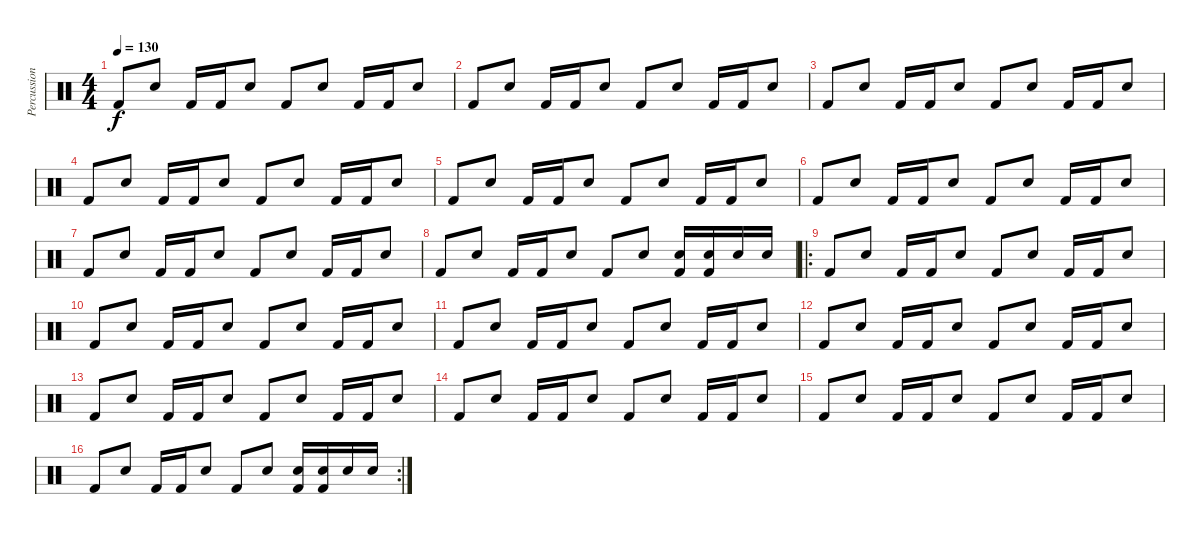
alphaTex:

\track ("Percussion" "Percussion") {instrument percussion}
\staff {score}
\articulation defaults
\ts (4 4)
\tempo 130
\clef neutral
\ks c "Kick (hit) 2".8{dy f} "Snare (hit) 2".8 "Kick (hit) 2".16 "Kick (hit) 2".16 "Snare (hit) 2".8 "Kick (hit) 2".8 "Snare (hit) 2".8 "Kick (hit) 2".16 "Kick (hit) 2".16 "Snare (hit) 2".8
|
"Kick (hit) 2".8 "Snare (hit) 2".8 "Kick (hit) 2".16 "Kick (hit) 2".16 "Snare (hit) 2".8 "Kick (hit) 2".8 "Snare (hit) 2".8 "Kick (hit) 2".16 "Kick (hit) 2".16 "Snare (hit) 2".8 |
"Kick (hit) 2".8 "Snare (hit) 2".8 "Kick (hit) 2".16 "Kick (hit) 2".16 "Snare (hit) 2".8 "Kick (hit) 2".8 "Snare (hit) 2".8 "Kick (hit) 2".16 "Kick (hit) 2".16 "Snare (hit) 2".8 |
"Kick (hit) 2".8 "Snare (hit) 2".8 "Kick (hit) 2".16 "Kick (hit) 2".16 "Snare (hit) 2".8 "Kick (hit) 2".8 "Snare (hit) 2".8 "Kick (hit) 2".16 "Kick (hit) 2".16 "Snare (hit) 2".8 |
"Kick (hit) 2".8 "Snare (hit) 2".8 "Kick (hit) 2".16 "Kick (hit) 2".16 "Snare (hit) 2".8 "Kick (hit) 2".8 "Snare (hit) 2".8 "Kick (hit) 2".16 "Kick (hit) 2".16 "Snare (hit) 2".8 |
"Kick (hit) 2".8 "Snare (hit) 2".8 "Kick (hit) 2".16 "Kick (hit) 2".16 "Snare (hit) 2".8 "Kick (hit) 2".8 "Snare (hit) 2".8 "Kick (hit) 2".16 "Kick (hit) 2".16 "Snare (hit) 2".8 |
"Kick (hit) 2".8 "Snare (hit) 2".8 "Kick (hit) 2".16 "Kick (hit) 2".16 "Snare (hit) 2".8 "Kick (hit) 2".8 "Snare (hit) 2".8 "Kick (hit) 2".16 "Kick (hit) 2".16 "Snare (hit) 2".8 |
"Kick (hit) 2".8 "Snare (hit) 2".8 "Kick (hit) 2".16 "Kick (hit) 2".16 "Snare (hit) 2".8 "Kick (hit) 2".8 "Snare (hit) 2".8 ("Kick (hit) 2" "Snare (hit) 2").16 ("Kick (hit) 2" "Snare (hit) 2").16 "Snare (hit) 2".16 "Snare (hit) 2".16 |
\ro "Kick (hit) 2".8 "Snare (hit) 2".8 "Kick (hit) 2".16 "Kick (hit) 2".16 "Snare (hit) 2".8 "Kick (hit) 2".8 "Snare (hit) 2".8 "Kick (hit) 2".16 "Kick (hit) 2".16 "Snare (hit) 2".8
|
"Kick (hit) 2".8 "Snare (hit) 2".8 "Kick (hit) 2".16 "Kick (hit) 2".16 "Snare (hit) 2".8 "Kick (hit) 2".8 "Snare (hit) 2".8 "Kick (hit) 2".16 "Kick (hit) 2".16 "Snare (hit) 2".8 |
"Kick (hit) 2".8 "Snare (hit) 2".8 "Kick (hit) 2".16 "Kick (hit) 2".16 "Snare (hit) 2".8 "Kick (hit) 2".8 "Snare (hit) 2".8 "Kick (hit) 2".16 "Kick (hit) 2".16 "Snare (hit) 2".8 |
"Kick (hit) 2".8 "Snare (hit) 2".8 "Kick (hit) 2".16 "Kick (hit) 2".16 "Snare (hit) 2".8 "Kick (hit) 2".8 "Snare (hit) 2".8 "Kick (hit) 2".16 "Kick (hit) 2".16 "Snare (hit) 2".8 |
"Kick (hit) 2".8 "Snare (hit) 2".8 "Kick (hit) 2".16 "Kick (hit) 2".16 "Snare (hit) 2".8 "Kick (hit) 2".8 "Snare (hit) 2".8 "Kick (hit) 2".16 "Kick (hit) 2".16 "Snare (hit) 2".8 |
"Kick (hit) 2".8 "Snare (hit) 2".8 "Kick (hit) 2".16 "Kick (hit) 2".16 "Snare (hit) 2".8 "Kick (hit) 2".8 "Snare (hit) 2".8 "Kick (hit) 2".16 "Kick (hit) 2".16 "Snare (hit) 2".8 |
"Kick (hit) 2".8 "Snare (hit) 2".8 "Kick (hit) 2".16 "Kick (hit) 2".16 "Snare (hit) 2".8 "Kick (hit) 2".8 "Snare (hit) 2".8 "Kick (hit) 2".16 "Kick (hit) 2".16 "Snare (hit) 2".8 |
\rc 2 "Kick (hit) 2".8 "Snare (hit) 2".8 "Kick (hit) 2".16 "Kick (hit) 2".16 "Snare (hit) 2".8 "Kick (hit) 2".8 "Snare (hit) 2".8
("Kick (hit) 2" "Snare (hit) 2").16 ("Kick (hit) 2" "Snare (hit) 2").16 "Snare (hit) 2".16 "Snare (hit) 2".16
